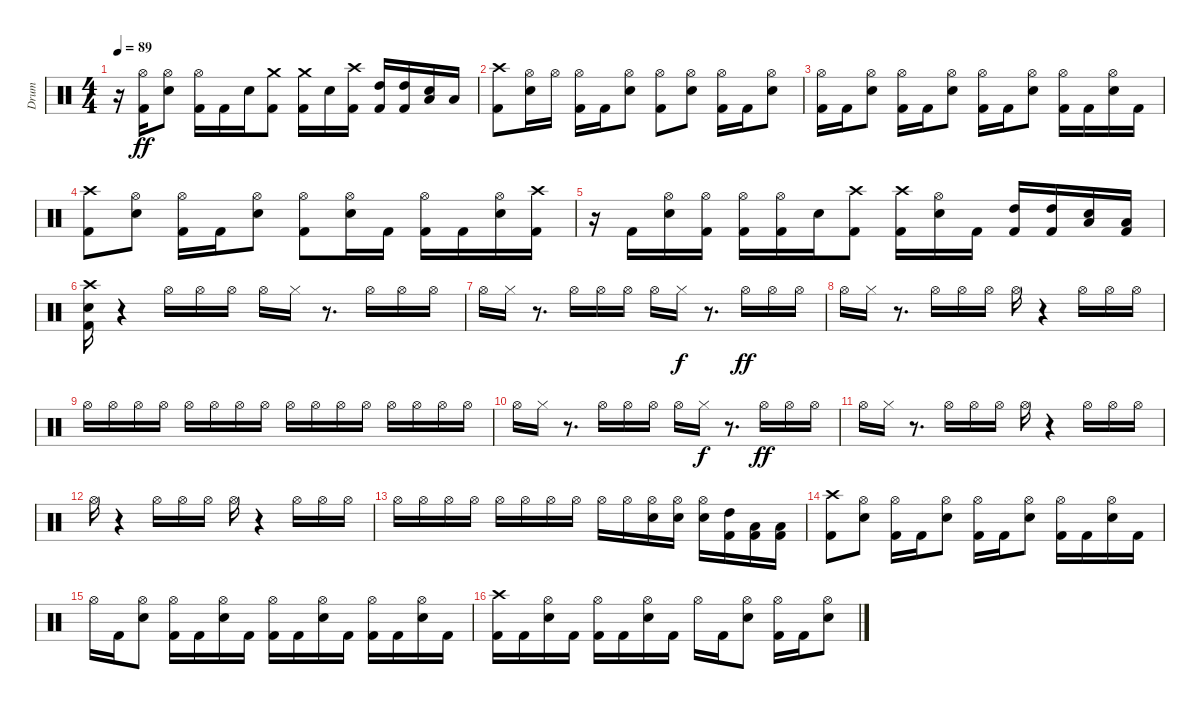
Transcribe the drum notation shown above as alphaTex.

\track ("Drum" "Drum") {instrument percussion}
\staff {score}
\articulation defaults
\ts (4 4)
\tempo 89
\clef neutral
\ks c
r.16{dy ff} ("Kick (hit) 2" "Hi-Hat (open)").16 ("Hi-Hat (open)" "Electric Snare (hit)").8 ("Kick (hit) 2" "Hi-Hat (open)").16 "Kick (hit) 2".16 "Electric Snare (hit)".16 ("Crash medium (hit)" "Kick (hit) 2").8 ("Crash medium (hit)" "Kick (hit) 2").16 "Electric Snare (hit)".16 ("Kick (hit) 2" "Crash high (hit)").16 ("Kick (hit) 2" "High Tom (hit)").16 ("Kick (hit) 2" "High Tom (hit)").16 ("Electric Snare (hit)" "Low Tom (hit)").16 "Low Floor Tom (hit)".16 |
("Kick (hit) 2" "Crash high (hit)").8 ("Electric Snare (hit)" "Hi-Hat (open)").16 "Hi-Hat (open)".16 ("Kick (hit) 2" "Hi-Hat (open)").16 "Kick (hit) 2".16 ("Electric Snare (hit)" "Hi-Hat (open)").8 ("Kick (hit) 2" "Hi-Hat (open)").8 ("Electric Snare (hit)" "Hi-Hat (open)").8 ("Kick (hit) 2" "Hi-Hat (open)").16 "Kick (hit) 2".16 ("Electric Snare (hit)" "Hi-Hat (open)").8 |
("Kick (hit) 2" "Hi-Hat (open)").16 "Kick (hit) 2".16 ("Electric Snare (hit)" "Hi-Hat (open)").8 ("Hi-Hat (open)" "Kick (hit) 2").16 "Kick (hit) 2".16 ("Hi-Hat (open)" "Electric Snare (hit)").8 ("Kick (hit) 2" "Hi-Hat (open)").16 "Kick (hit) 2".16 ("Electric Snare (hit)" "Hi-Hat (open)").8 ("Kick (hit) 2" "Hi-Hat (open)").16 "Kick (hit) 2".16 ("Electric Snare (hit)" "Hi-Hat (open)").16 "Kick (hit) 2".16 |
("Kick (hit) 2" "Crash high (hit)").8 ("Electric Snare (hit)" "Hi-Hat (open)").8 ("Kick (hit) 2" "Hi-Hat (open)").16 "Kick (hit) 2".16 ("Electric Snare (hit)" "Hi-Hat (open)").8 ("Kick (hit) 2" "Hi-Hat (open)").8 ("Hi-Hat (open)" "Electric Snare (hit)").16 "Kick (hit) 2".16 ("Kick (hit) 2" "Hi-Hat (open)").16 "Kick (hit) 2".16 ("Electric Snare (hit)" "Hi-Hat (open)").16 ("Kick (hit) 2" "Crash high (hit)").16 |
r.16 "Kick (hit) 2".16 ("Electric Snare (hit)" "Hi-Hat (open)").16 ("Kick (hit) 2" "Hi-Hat (open)").16 ("Kick (hit) 2" "Hi-Hat (open)").16 ("Kick (hit) 2" "Hi-Hat (open)").16 "Electric Snare (hit)".16 ("Crash high (hit)" "Kick (hit) 2").8 ("Crash high (hit)" "Kick (hit) 2").16 ("Hi-Hat (open)" "Electric Snare (hit)").16 "Kick (hit) 2".16 ("High Tom (hit)" "Kick (hit) 2").16 ("Kick (hit) 2" "High Tom (hit)").16 ("Electric Snare (hit)" "Low Tom (hit)").16 ("Kick (hit) 2" "Low Floor Tom (hit)").16 |
("Kick (hit) 2" "Electric Snare (hit)" "Crash high (hit)").16 r.4 "Hi-Hat (open)".16 "Hi-Hat (open)".16 "Hi-Hat (open)".16 "Hi-Hat (open)".16 "Hi-Hat (closed)".16 r.8{d} "Hi-Hat (open)".16 "Hi-Hat (open)".16 "Hi-Hat (open)".16 |
"Hi-Hat (open)".16 "Hi-Hat (closed)".16 r.8{d} "Hi-Hat (open)".16 "Hi-Hat (open)".16 "Hi-Hat (open)".16 "Hi-Hat (open)".16 "Hi-Hat (closed)".16{dy f} r.8{d} "Hi-Hat (open)".16{dy ff} "Hi-Hat (open)".16 "Hi-Hat (open)".16 |
"Hi-Hat (open)".16 "Hi-Hat (closed)".16 r.8{d} "Hi-Hat (open)".16 "Hi-Hat (open)".16 "Hi-Hat (open)".16 "Hi-Hat (open)".16 r.4 "Hi-Hat (open)".16 "Hi-Hat (open)".16 "Hi-Hat (open)".16 |
"Hi-Hat (open)".16 "Hi-Hat (open)".16 "Hi-Hat (open)".16 "Hi-Hat (open)".16 "Hi-Hat (open)".16 "Hi-Hat (open)".16 "Hi-Hat (open)".16 "Hi-Hat (open)".16 "Hi-Hat (open)".16 "Hi-Hat (open)".16 "Hi-Hat (open)".16 "Hi-Hat (open)".16 "Hi-Hat (open)".16 "Hi-Hat (open)".16 "Hi-Hat (open)".16 "Hi-Hat (open)".16 |
"Hi-Hat (open)".16 "Hi-Hat (closed)".16 r.8{d} "Hi-Hat (open)".16 "Hi-Hat (open)".16 "Hi-Hat (open)".16 "Hi-Hat (open)".16 "Hi-Hat (closed)".16{dy f} r.8{d} "Hi-Hat (open)".16{dy ff} "Hi-Hat (open)".16 "Hi-Hat (open)".16 |
"Hi-Hat (open)".16 "Hi-Hat (closed)".16 r.8{d} "Hi-Hat (open)".16 "Hi-Hat (open)".16 "Hi-Hat (open)".16 "Hi-Hat (open)".16 r.4 "Hi-Hat (open)".16 "Hi-Hat (open)".16 "Hi-Hat (open)".16 |
"Hi-Hat (open)".16 r.4 "Hi-Hat (open)".16 "Hi-Hat (open)".16 "Hi-Hat (open)".16 "Hi-Hat (open)".16 r.4 "Hi-Hat (open)".16 "Hi-Hat (open)".16 "Hi-Hat (open)".16 |
"Hi-Hat (open)".16 "Hi-Hat (open)".16 "Hi-Hat (open)".16 "Hi-Hat (open)".16 "Hi-Hat (open)".16 "Hi-Hat (open)".16 "Hi-Hat (open)".16 "Hi-Hat (open)".16 "Hi-Hat (open)".16 "Hi-Hat (open)".16 ("Electric Snare (hit)" "Hi-Hat (open)").16 ("Electric Snare (hit)" "Hi-Hat (open)").16 ("Electric Snare (hit)" "Hi-Hat (open)").16 ("Kick (hit) 2" "High Tom (hit)").16 ("Kick (hit) 2" "Low Tom (hit)").16 ("Kick (hit) 2" "Low Floor Tom (hit)").16 |
("Crash high (hit)" "Kick (hit) 2").8 ("Electric Snare (hit)" "Hi-Hat (open)").8 ("Kick (hit) 2" "Hi-Hat (open)").16 "Kick (hit) 2".16 ("Electric Snare (hit)" "Hi-Hat (open)").8 ("Kick (hit) 2" "Hi-Hat (open)").16 "Kick (hit) 2".16 ("Electric Snare (hit)" "Hi-Hat (open)").8 ("Kick (hit) 2" "Hi-Hat (open)").16 "Kick (hit) 2".16 ("Electric Snare (hit)" "Hi-Hat (open)").16 "Kick (hit) 2".16 |
"Hi-Hat (open)".16 "Kick (hit) 2".16 ("Electric Snare (hit)" "Hi-Hat (open)").8 ("Kick (hit) 2" "Hi-Hat (open)").16 "Kick (hit) 2".16 ("Electric Snare (hit)" "Hi-Hat (open)").16 "Kick (hit) 2".16 ("Kick (hit) 2" "Hi-Hat (open)").16 "Kick (hit) 2".16 ("Electric Snare (hit)" "Hi-Hat (open)").16 "Kick (hit) 2".16 ("Kick (hit) 2" "Hi-Hat (open)").16 "Kick (hit) 2".16 ("Hi-Hat (open)" "Electric Snare (hit)").16 "Kick (hit) 2".16 |
("Kick (hit) 2" "Crash high (hit)").16 "Kick (hit) 2".16 ("Electric Snare (hit)" "Hi-Hat (open)").16 "Kick (hit) 2".16 ("Kick (hit) 2" "Hi-Hat (open)").16 "Kick (hit) 2".16 ("Electric Snare (hit)" "Hi-Hat (open)").16 "Kick (hit) 2".16 "Hi-Hat (open)".16 "Kick (hit) 2".16 ("Electric Snare (hit)" "Hi-Hat (open)").8 ("Kick (hit) 2" "Hi-Hat (open)").16 "Kick (hit) 2".16 ("Electric Snare (hit)" "Hi-Hat (open)").8
